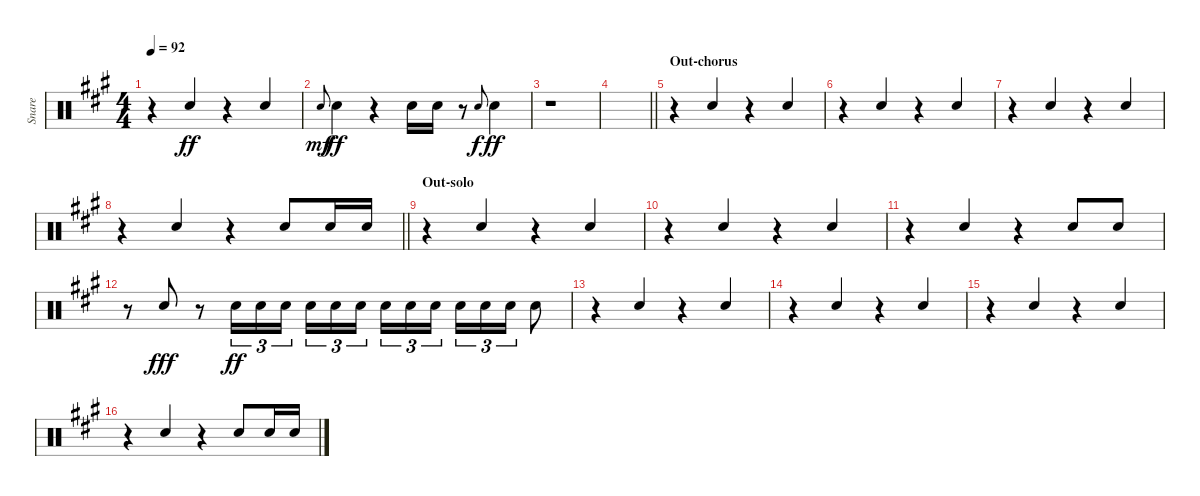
\track ("Snare" "Snare") {instrument percussion}
\staff {score}
\articulation defaults
\ts (4 4)
\tempo 92
\clef neutral
\ks f#minor
r.4{dy ff} "Electric Snare (hit)".4{beam Up} r.4{beam merge} "Electric Snare (hit)".4{beam Up} |
"Electric Snare (hit)".8{gr onbeat dy mf} "Electric Snare (hit)".4{dy ff} r.4 "Electric Snare (hit)".16 "Electric Snare (hit)".16 r.8 "Electric Snare (hit)".8{gr onbeat dy f} "Electric Snare (hit)".4{dy ff} |
r.1 |
\barLineRight lightlight
|
\section ("" "Out-chorus")
r.4 "Electric Snare (hit)".4{beam Up} r.4{beam merge} "Electric Snare (hit)".4{beam Up} |
r.4 "Electric Snare (hit)".4{beam Up} r.4{beam merge} "Electric Snare (hit)".4{beam Up} |
r.4 "Electric Snare (hit)".4{beam Up} r.4{beam merge} "Electric Snare (hit)".4{beam Up} |
\barLineRight lightlight
r.4 "Electric Snare (hit)".4{beam Up} r.4{beam merge} "Electric Snare (hit)".8{beam Up} "Electric Snare (hit)".16{beam Up} "Electric Snare (hit)".16{beam Up} |
\section ("" "Out-solo")
r.4 "Electric Snare (hit)".4{beam Up} r.4{beam merge} "Electric Snare (hit)".4{beam Up} |
r.4 "Electric Snare (hit)".4{beam Up} r.4{beam merge} "Electric Snare (hit)".4{beam Up} |
r.4 "Electric Snare (hit)".4{beam Up} r.4{beam merge} "Electric Snare (hit)".8{beam Up} "Electric Snare (hit)".8{beam Up} |
r.8 "Electric Snare (hit)".8{dy fff beam Up} r.8 "Electric Snare (hit)".16{tu (3 2) dy ff} "Electric Snare (hit)".16{tu (3 2)} "Electric Snare (hit)".16{tu (3 2)} "Electric Snare (hit)".16{tu (3 2)} "Electric Snare (hit)".16{tu (3 2)} "Electric Snare (hit)".16{tu (3 2) beam splitsecondary} "Electric Snare (hit)".16{tu (3 2)} "Electric Snare (hit)".16{tu (3 2)} "Electric Snare (hit)".16{tu (3 2)} "Electric Snare (hit)".16{tu (3 2)} "Electric Snare (hit)".16{tu (3 2)} "Electric Snare (hit)".16{tu (3 2)} "Electric Snare (hit)".8 |
r.4 "Electric Snare (hit)".4{beam Up} r.4{beam merge} "Electric Snare (hit)".4{beam Up} |
r.4 "Electric Snare (hit)".4{beam Up} r.4{beam merge} "Electric Snare (hit)".4{beam Up} |
r.4 "Electric Snare (hit)".4{beam Up} r.4{beam merge} "Electric Snare (hit)".4{beam Up} |
r.4 "Electric Snare (hit)".4{beam Up} r.4{beam merge} "Electric Snare (hit)".8{beam Up} "Electric Snare (hit)".16{beam Up} "Electric Snare (hit)".16{beam Up}
